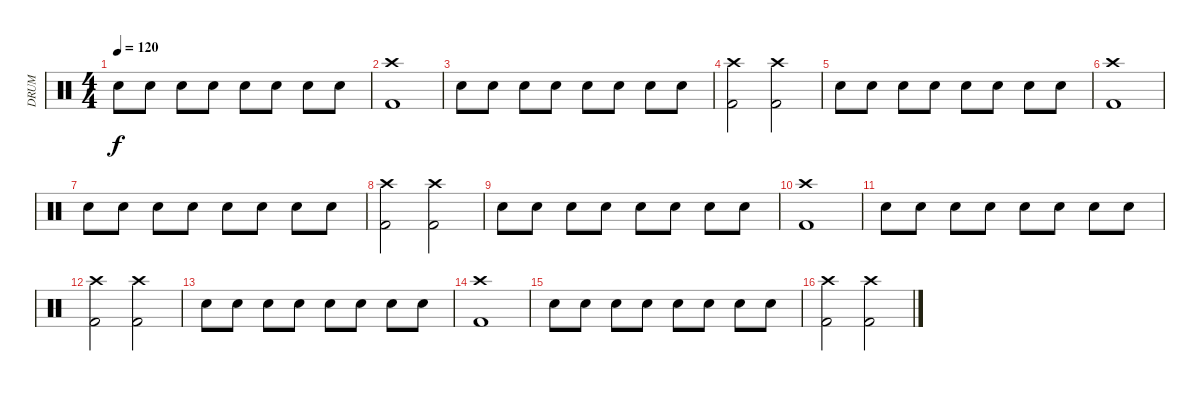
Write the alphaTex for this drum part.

\track ("DRUM" "DRUM") {instrument percussion}
\staff {score}
\articulation defaults
\ts (4 4)
\tempo 120
\clef neutral
\ks c "Electric Snare (hit)".8{dy f} "Electric Snare (hit)".8 "Electric Snare (hit)".8 "Electric Snare (hit)".8 "Electric Snare (hit)".8 "Electric Snare (hit)".8 "Electric Snare (hit)".8 "Electric Snare (hit)".8
|
("Kick (hit) 2" "Crash high (hit)").1 |
"Electric Snare (hit)".8 "Electric Snare (hit)".8 "Electric Snare (hit)".8 "Electric Snare (hit)".8 "Electric Snare (hit)".8 "Electric Snare (hit)".8 "Electric Snare (hit)".8 "Electric Snare (hit)".8 |
("Kick (hit) 2" "Crash high (hit)").2 ("Kick (hit) 2" "Crash high (hit)").2 |
"Electric Snare (hit)".8 "Electric Snare (hit)".8 "Electric Snare (hit)".8 "Electric Snare (hit)".8 "Electric Snare (hit)".8 "Electric Snare (hit)".8 "Electric Snare (hit)".8 "Electric Snare (hit)".8 |
("Kick (hit) 2" "Crash high (hit)").1 |
"Electric Snare (hit)".8 "Electric Snare (hit)".8 "Electric Snare (hit)".8 "Electric Snare (hit)".8 "Electric Snare (hit)".8 "Electric Snare (hit)".8 "Electric Snare (hit)".8 "Electric Snare (hit)".8 |
("Kick (hit) 2" "Crash high (hit)").2 ("Kick (hit) 2" "Crash high (hit)").2 |
"Electric Snare (hit)".8 "Electric Snare (hit)".8 "Electric Snare (hit)".8 "Electric Snare (hit)".8 "Electric Snare (hit)".8 "Electric Snare (hit)".8 "Electric Snare (hit)".8 "Electric Snare (hit)".8 |
("Kick (hit) 2" "Crash high (hit)").1 |
"Electric Snare (hit)".8 "Electric Snare (hit)".8 "Electric Snare (hit)".8 "Electric Snare (hit)".8 "Electric Snare (hit)".8 "Electric Snare (hit)".8 "Electric Snare (hit)".8 "Electric Snare (hit)".8 |
("Kick (hit) 2" "Crash high (hit)").2 ("Kick (hit) 2" "Crash high (hit)").2 |
"Electric Snare (hit)".8 "Electric Snare (hit)".8 "Electric Snare (hit)".8 "Electric Snare (hit)".8 "Electric Snare (hit)".8 "Electric Snare (hit)".8 "Electric Snare (hit)".8 "Electric Snare (hit)".8 |
("Kick (hit) 2" "Crash high (hit)").1 |
"Electric Snare (hit)".8 "Electric Snare (hit)".8 "Electric Snare (hit)".8 "Electric Snare (hit)".8 "Electric Snare (hit)".8 "Electric Snare (hit)".8 "Electric Snare (hit)".8 "Electric Snare (hit)".8 |
("Kick (hit) 2" "Crash high (hit)").2 ("Kick (hit) 2" "Crash high (hit)").2
